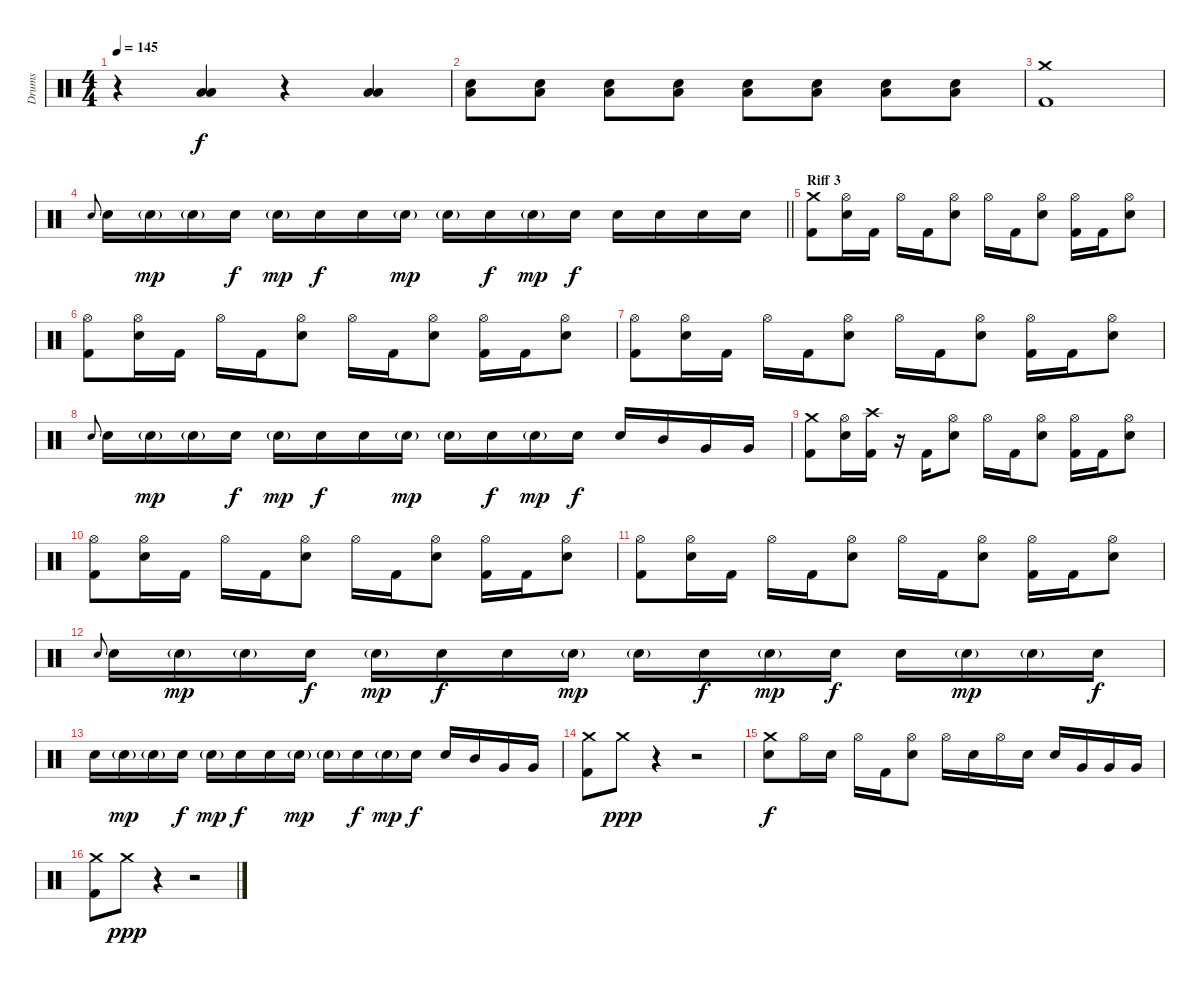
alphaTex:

\track ("Drums" "Drums") {instrument percussion}
\staff {score}
\articulation defaults
\ts (4 4)
\tempo 145
\clef neutral
\ks c
r.4{dy f} ("Low Tom (hit)" "Low Floor Tom (hit)").4 r.4 ("Low Tom (hit)" "Low Floor Tom (hit)").4 |
("Electric Snare (hit)" "Low Floor Tom (hit)").8 ("Electric Snare (hit)" "Low Floor Tom (hit)").8 ("Electric Snare (hit)" "Low Floor Tom (hit)").8 ("Electric Snare (hit)" "Low Floor Tom (hit)").8 ("Electric Snare (hit)" "Low Floor Tom (hit)").8 ("Electric Snare (hit)" "Low Floor Tom (hit)").8 ("Electric Snare (hit)" "Low Floor Tom (hit)").8 ("Electric Snare (hit)" "Low Floor Tom (hit)").8 |
("Crash medium (hit)" "Kick (hit) 2").1 |
\barLineRight lightlight "Electric Snare (hit)".8{gr onbeat} "Electric Snare (hit)".16 "Electric Snare (hit)"{g}.16{dy mp} "Electric Snare (hit)"{g}.16 "Electric Snare (hit)".16{dy f} "Electric Snare (hit)"{g}.16{dy mp} "Electric Snare (hit)".16{dy f} "Electric Snare (hit)".16 "Electric Snare (hit)"{g}.16{dy mp} "Electric Snare (hit)"{g}.16 "Electric Snare (hit)".16{dy f} "Electric Snare (hit)"{g}.16{dy mp} "Electric Snare (hit)".16{dy f} "Electric Snare (hit)".16 "Electric Snare (hit)".16 "Electric Snare (hit)".16 "Electric Snare (hit)".16
|
\section ("" "Riff 3")
("Crash medium (hit)" "Kick (hit) 2").8 ("Hi-Hat (open)" "Electric Snare (hit)").16 "Kick (hit) 2".16 "Hi-Hat (open)".16 "Kick (hit) 2".16 ("Hi-Hat (open)" "Electric Snare (hit)").8 "Hi-Hat (open)".16 "Kick (hit) 2".16 ("Electric Snare (hit)" "Hi-Hat (open)").8 ("Kick (hit) 2" "Hi-Hat (open)").16 "Kick (hit) 2".16 ("Electric Snare (hit)" "Hi-Hat (open)").8 |
("Hi-Hat (open)" "Kick (hit) 2").8 ("Hi-Hat (open)" "Electric Snare (hit)").16 "Kick (hit) 2".16 "Hi-Hat (open)".16 "Kick (hit) 2".16 ("Hi-Hat (open)" "Electric Snare (hit)").8 "Hi-Hat (open)".16 "Kick (hit) 2".16 ("Electric Snare (hit)" "Hi-Hat (open)").8 ("Kick (hit) 2" "Hi-Hat (open)").16 "Kick (hit) 2".16 ("Electric Snare (hit)" "Hi-Hat (open)").8 |
("Hi-Hat (open)" "Kick (hit) 2").8 ("Hi-Hat (open)" "Electric Snare (hit)").16 "Kick (hit) 2".16 "Hi-Hat (open)".16 "Kick (hit) 2".16 ("Hi-Hat (open)" "Electric Snare (hit)").8 "Hi-Hat (open)".16 "Kick (hit) 2".16 ("Electric Snare (hit)" "Hi-Hat (open)").8 ("Kick (hit) 2" "Hi-Hat (open)").16 "Kick (hit) 2".16 ("Electric Snare (hit)" "Hi-Hat (open)").8 |
"Electric Snare (hit)".8{gr onbeat} "Electric Snare (hit)".16 "Electric Snare (hit)"{g}.16{dy mp} "Electric Snare (hit)"{g}.16 "Electric Snare (hit)".16{dy f} "Electric Snare (hit)"{g}.16{dy mp} "Electric Snare (hit)".16{dy f} "Electric Snare (hit)".16 "Electric Snare (hit)"{g}.16{dy mp} "Electric Snare (hit)"{g}.16 "Electric Snare (hit)".16{dy f} "Electric Snare (hit)"{g}.16{dy mp} "Electric Snare (hit)".16{dy f} "Electric Snare (hit)".16 "Mid Tom (hit)".16 "Very Low Tom (hit)".16 "Very Low Tom (hit)".16 |
("Crash medium (hit)" "Kick (hit) 2").8 ("Hi-Hat (open)" "Electric Snare (hit)").16 ("Kick (hit) 2" "Crash high (hit)").16 r.16 "Kick (hit) 2".16 ("Hi-Hat (open)" "Electric Snare (hit)").8 "Hi-Hat (open)".16 "Kick (hit) 2".16 ("Electric Snare (hit)" "Hi-Hat (open)").8 ("Kick (hit) 2" "Hi-Hat (open)").16 "Kick (hit) 2".16 ("Electric Snare (hit)" "Hi-Hat (open)").8 |
("Hi-Hat (open)" "Kick (hit) 2").8 ("Hi-Hat (open)" "Electric Snare (hit)").16 "Kick (hit) 2".16 "Hi-Hat (open)".16 "Kick (hit) 2".16 ("Hi-Hat (open)" "Electric Snare (hit)").8 "Hi-Hat (open)".16 "Kick (hit) 2".16 ("Electric Snare (hit)" "Hi-Hat (open)").8 ("Kick (hit) 2" "Hi-Hat (open)").16 "Kick (hit) 2".16 ("Electric Snare (hit)" "Hi-Hat (open)").8 |
("Hi-Hat (open)" "Kick (hit) 2").8 ("Hi-Hat (open)" "Electric Snare (hit)").16 "Kick (hit) 2".16 "Hi-Hat (open)".16 "Kick (hit) 2".16 ("Hi-Hat (open)" "Electric Snare (hit)").8 "Hi-Hat (open)".16 "Kick (hit) 2".16 ("Electric Snare (hit)" "Hi-Hat (open)").8 ("Kick (hit) 2" "Hi-Hat (open)").16 "Kick (hit) 2".16 ("Electric Snare (hit)" "Hi-Hat (open)").8 |
"Electric Snare (hit)".8{gr onbeat} "Electric Snare (hit)".16 "Electric Snare (hit)"{g}.16{dy mp} "Electric Snare (hit)"{g}.16 "Electric Snare (hit)".16{dy f} "Electric Snare (hit)"{g}.16{dy mp} "Electric Snare (hit)".16{dy f} "Electric Snare (hit)".16 "Electric Snare (hit)"{g}.16{dy mp} "Electric Snare (hit)"{g}.16 "Electric Snare (hit)".16{dy f} "Electric Snare (hit)"{g}.16{dy mp} "Electric Snare (hit)".16{dy f} "Electric Snare (hit)".16 "Electric Snare (hit)"{g}.16{dy mp} "Electric Snare (hit)"{g}.16 "Electric Snare (hit)".16{dy f} |
"Electric Snare (hit)".16 "Electric Snare (hit)"{g}.16{dy mp} "Electric Snare (hit)"{g}.16 "Electric Snare (hit)".16{dy f} "Electric Snare (hit)"{g}.16{dy mp} "Electric Snare (hit)".16{dy f} "Electric Snare (hit)".16 "Electric Snare (hit)"{g}.16{dy mp} "Electric Snare (hit)"{g}.16 "Electric Snare (hit)".16{dy f} "Electric Snare (hit)"{g}.16{dy mp} "Electric Snare (hit)".16{dy f} "Electric Snare (hit)".16 "Mid Tom (hit)".16 "Very Low Tom (hit)".16 "Very Low Tom (hit)".16 |
("Crash medium (hit)" "Kick (hit) 2").8 "Crash medium (hit)".8{dy ppp} r.4 r.2 |
("Crash medium (hit)" "Electric Snare (hit)").8{dy f} "Hi-Hat (open)".16 "Electric Snare (hit)".16 "Hi-Hat (open)".16 "Kick (hit) 2".16 ("Electric Snare (hit)" "Hi-Hat (open)").8 "Hi-Hat (open)".16 "Electric Snare (hit)".16 "Hi-Hat (open)".16 "Electric Snare (hit)".16 "Electric Snare (hit)".16 "Very Low Tom (hit)".16 "Very Low Tom (hit)".16 "Very Low Tom (hit)".16 |
("Crash medium (hit)" "Kick (hit) 2").8 "Crash medium (hit)".8{dy ppp} r.4 r.2
